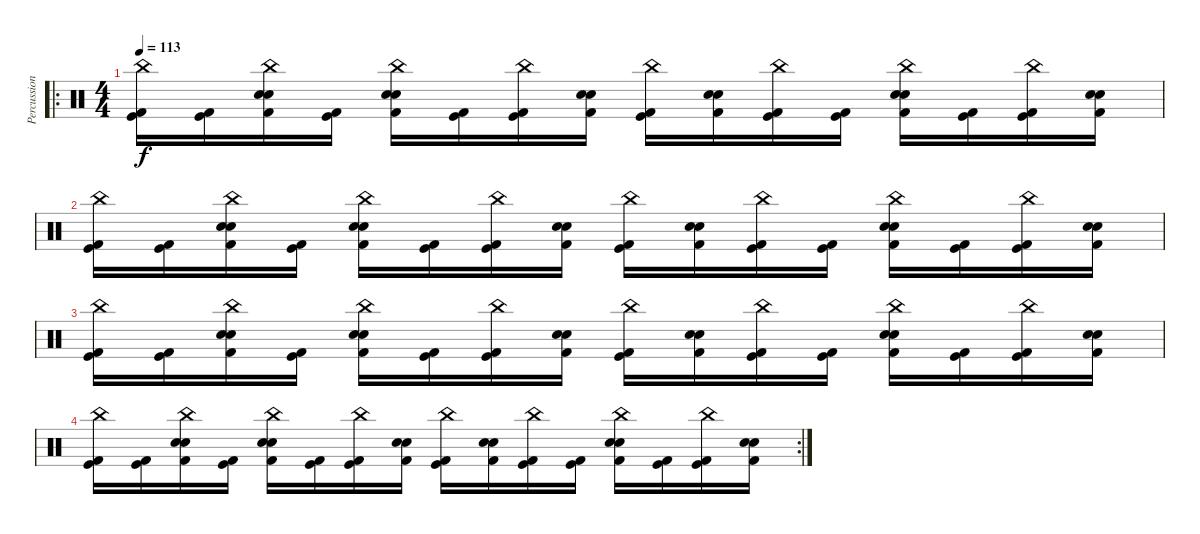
\track ("Percussion" "Percussion") {instrument percussion}
\staff {score}
\articulation defaults
\ro
\ts (4 4)
\tempo 113
\clef neutral
\ks c
("Kick (hit)" "Kick (hit) 2" "China (hit)").16{dy f} ("Kick (hit)" "Kick (hit) 2").16 ("Snare (hit) 2" "Kick (hit) 2" "Electric Snare (hit)" "China (hit)").16 ("Kick (hit)" "Kick (hit) 2").16 ("Snare (hit) 2" "Kick (hit) 2" "Electric Snare (hit)" "China (hit)").16 ("Kick (hit)" "Kick (hit) 2").16 ("Kick (hit)" "Kick (hit) 2" "China (hit)").16 ("Snare (hit) 2" "Kick (hit) 2" "Electric Snare (hit)").16 ("Kick (hit)" "Kick (hit) 2" "China (hit)").16 ("Snare (hit) 2" "Kick (hit) 2" "Electric Snare (hit)").16 ("Kick (hit)" "Kick (hit) 2" "China (hit)").16 ("Kick (hit)" "Kick (hit) 2").16 ("Snare (hit) 2" "Kick (hit) 2" "Electric Snare (hit)" "China (hit)").16 ("Kick (hit)" "Kick (hit) 2").16 ("Kick (hit)" "Kick (hit) 2" "China (hit)").16 ("Snare (hit) 2" "Kick (hit) 2" "Electric Snare (hit)").16 |
("Kick (hit)" "Kick (hit) 2" "China (hit)").16 ("Kick (hit)" "Kick (hit) 2").16 ("Snare (hit) 2" "Kick (hit) 2" "Electric Snare (hit)" "China (hit)").16 ("Kick (hit)" "Kick (hit) 2").16 ("Snare (hit) 2" "Kick (hit) 2" "Electric Snare (hit)" "China (hit)").16 ("Kick (hit)" "Kick (hit) 2").16 ("Kick (hit)" "Kick (hit) 2" "China (hit)").16 ("Snare (hit) 2" "Kick (hit) 2" "Electric Snare (hit)").16 ("Kick (hit)" "Kick (hit) 2" "China (hit)").16 ("Snare (hit) 2" "Kick (hit) 2" "Electric Snare (hit)").16 ("Kick (hit)" "Kick (hit) 2" "China (hit)").16 ("Kick (hit)" "Kick (hit) 2").16 ("Snare (hit) 2" "Kick (hit) 2" "Electric Snare (hit)" "China (hit)").16 ("Kick (hit)" "Kick (hit) 2").16 ("Kick (hit)" "Kick (hit) 2" "China (hit)").16 ("Snare (hit) 2" "Kick (hit) 2" "Electric Snare (hit)").16 |
("Kick (hit)" "Kick (hit) 2" "China (hit)").16 ("Kick (hit)" "Kick (hit) 2").16 ("Snare (hit) 2" "Kick (hit) 2" "Electric Snare (hit)" "China (hit)").16 ("Kick (hit)" "Kick (hit) 2").16 ("Snare (hit) 2" "Kick (hit) 2" "Electric Snare (hit)" "China (hit)").16 ("Kick (hit)" "Kick (hit) 2").16 ("Kick (hit)" "Kick (hit) 2" "China (hit)").16 ("Snare (hit) 2" "Kick (hit) 2" "Electric Snare (hit)").16 ("Kick (hit)" "Kick (hit) 2" "China (hit)").16 ("Snare (hit) 2" "Kick (hit) 2" "Electric Snare (hit)").16 ("Kick (hit)" "Kick (hit) 2" "China (hit)").16 ("Kick (hit)" "Kick (hit) 2").16 ("Snare (hit) 2" "Kick (hit) 2" "Electric Snare (hit)" "China (hit)").16 ("Kick (hit)" "Kick (hit) 2").16 ("Kick (hit)" "Kick (hit) 2" "China (hit)").16 ("Snare (hit) 2" "Kick (hit) 2" "Electric Snare (hit)").16 |
\rc 2
("Kick (hit)" "Kick (hit) 2" "China (hit)").16 ("Kick (hit)" "Kick (hit) 2").16 ("Snare (hit) 2" "Kick (hit) 2" "Electric Snare (hit)" "China (hit)").16 ("Kick (hit)" "Kick (hit) 2").16 ("Snare (hit) 2" "Kick (hit) 2" "Electric Snare (hit)" "China (hit)").16 ("Kick (hit)" "Kick (hit) 2").16 ("Kick (hit)" "Kick (hit) 2" "China (hit)").16 ("Snare (hit) 2" "Kick (hit) 2" "Electric Snare (hit)").16 ("Kick (hit)" "Kick (hit) 2" "China (hit)").16 ("Snare (hit) 2" "Kick (hit) 2" "Electric Snare (hit)").16 ("Kick (hit)" "Kick (hit) 2" "China (hit)").16 ("Kick (hit)" "Kick (hit) 2").16 ("Snare (hit) 2" "Kick (hit) 2" "Electric Snare (hit)" "China (hit)").16 ("Kick (hit)" "Kick (hit) 2").16 ("Kick (hit)" "Kick (hit) 2" "China (hit)").16 ("Snare (hit) 2" "Kick (hit) 2" "Electric Snare (hit)").16
